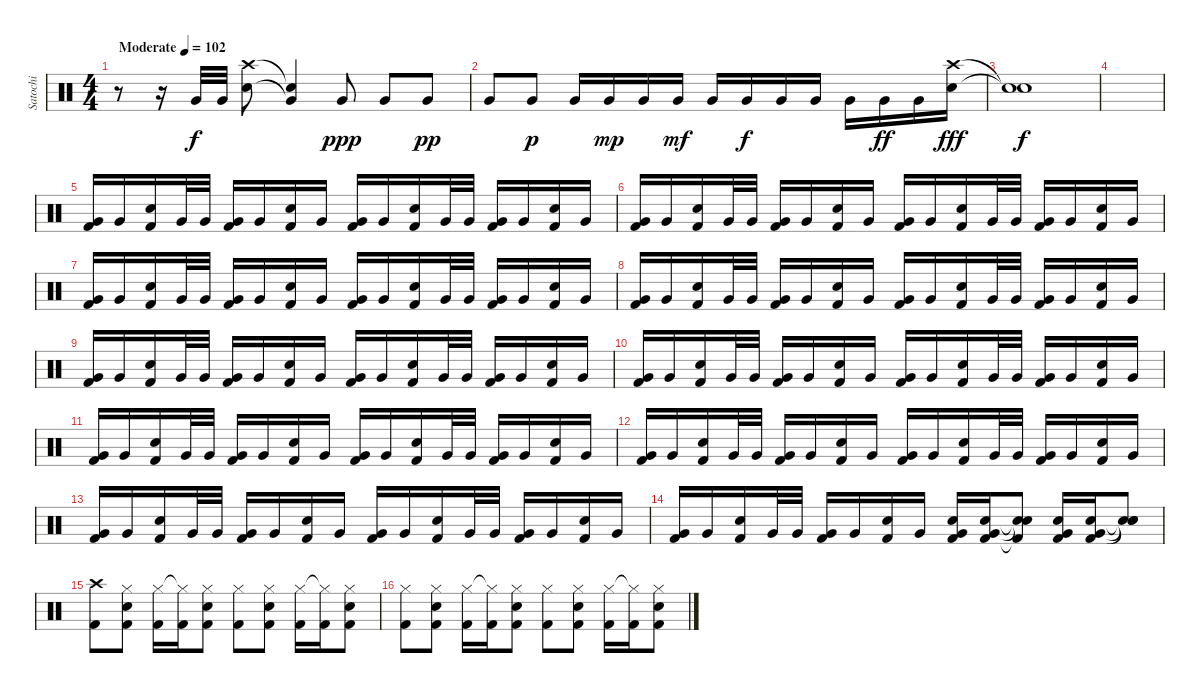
\track ("Satochi" "Satochi") {instrument percussion}
\staff {score}
\articulation defaults
\ts (4 4)
\tempo (102 "Moderate")
\clef neutral
\ks c
r.8{dy f} r.16 "Very Low Tom (hit)".32 "Very Low Tom (hit)".32 ("Crash high (hit)" "Electric Snare (hit)").8 ("Snare (hit)"{t} "Very Low Tom (hit)"{t}).4 "Very Low Tom (hit)".8{dy ppp} "Very Low Tom (hit)".8 "Very Low Tom (hit)".8{dy pp} |
"Very Low Tom (hit)".8 "Very Low Tom (hit)".8{dy p} "Very Low Tom (hit)".16 "Very Low Tom (hit)".16{dy mp} "Very Low Tom (hit)".16 "Very Low Tom (hit)".16{dy mf} "Very Low Tom (hit)".16 "Very Low Tom (hit)".16{dy f} "Very Low Tom (hit)".16 "Very Low Tom (hit)".16 "Very Low Tom (hit)".16 "Very Low Tom (hit)".16{dy ff} "Very Low Tom (hit)".16 ("Crash high (hit)" "Electric Snare (hit)").16{dy fff} |
("Snare (hit)"{t} "Snare (hit)"{t}).1{dy f} |
|
("Very Low Tom (hit)" "Kick (hit) 2").16 "Very Low Tom (hit)".16 ("Electric Snare (hit)" "Kick (hit) 2").16 "Very Low Tom (hit)".32 "Very Low Tom (hit)".32 ("Very Low Tom (hit)" "Kick (hit) 2").16 "Very Low Tom (hit)".16 ("Electric Snare (hit)" "Kick (hit) 2").16 "Very Low Tom (hit)".16 ("Very Low Tom (hit)" "Kick (hit) 2").16 "Very Low Tom (hit)".16 ("Electric Snare (hit)" "Kick (hit) 2").16 "Very Low Tom (hit)".32 "Very Low Tom (hit)".32 ("Very Low Tom (hit)" "Kick (hit) 2").16 "Very Low Tom (hit)".16 ("Electric Snare (hit)" "Kick (hit) 2").16 "Very Low Tom (hit)".16 |
("Very Low Tom (hit)" "Kick (hit) 2").16 "Very Low Tom (hit)".16 ("Electric Snare (hit)" "Kick (hit) 2").16 "Very Low Tom (hit)".32 "Very Low Tom (hit)".32 ("Very Low Tom (hit)" "Kick (hit) 2").16 "Very Low Tom (hit)".16 ("Electric Snare (hit)" "Kick (hit) 2").16 "Very Low Tom (hit)".16 ("Very Low Tom (hit)" "Kick (hit) 2").16 "Very Low Tom (hit)".16 ("Electric Snare (hit)" "Kick (hit) 2").16 "Very Low Tom (hit)".32 "Very Low Tom (hit)".32 ("Very Low Tom (hit)" "Kick (hit) 2").16 "Very Low Tom (hit)".16 ("Electric Snare (hit)" "Kick (hit) 2").16 "Very Low Tom (hit)".16 |
("Very Low Tom (hit)" "Kick (hit) 2").16 "Very Low Tom (hit)".16 ("Electric Snare (hit)" "Kick (hit) 2").16 "Very Low Tom (hit)".32 "Very Low Tom (hit)".32 ("Very Low Tom (hit)" "Kick (hit) 2").16 "Very Low Tom (hit)".16 ("Electric Snare (hit)" "Kick (hit) 2").16 "Very Low Tom (hit)".16 ("Very Low Tom (hit)" "Kick (hit) 2").16 "Very Low Tom (hit)".16 ("Electric Snare (hit)" "Kick (hit) 2").16 "Very Low Tom (hit)".32 "Very Low Tom (hit)".32 ("Very Low Tom (hit)" "Kick (hit) 2").16 "Very Low Tom (hit)".16 ("Electric Snare (hit)" "Kick (hit) 2").16 "Very Low Tom (hit)".16 |
("Very Low Tom (hit)" "Kick (hit) 2").16 "Very Low Tom (hit)".16 ("Electric Snare (hit)" "Kick (hit) 2").16 "Very Low Tom (hit)".32 "Very Low Tom (hit)".32 ("Very Low Tom (hit)" "Kick (hit) 2").16 "Very Low Tom (hit)".16 ("Electric Snare (hit)" "Kick (hit) 2").16 "Very Low Tom (hit)".16 ("Very Low Tom (hit)" "Kick (hit) 2").16 "Very Low Tom (hit)".16 ("Electric Snare (hit)" "Kick (hit) 2").16 "Very Low Tom (hit)".32 "Very Low Tom (hit)".32 ("Very Low Tom (hit)" "Kick (hit) 2").16 "Very Low Tom (hit)".16 ("Electric Snare (hit)" "Kick (hit) 2").16 "Very Low Tom (hit)".16 |
("Very Low Tom (hit)" "Kick (hit) 2").16 "Very Low Tom (hit)".16 ("Electric Snare (hit)" "Kick (hit) 2").16 "Very Low Tom (hit)".32 "Very Low Tom (hit)".32 ("Very Low Tom (hit)" "Kick (hit) 2").16 "Very Low Tom (hit)".16 ("Electric Snare (hit)" "Kick (hit) 2").16 "Very Low Tom (hit)".16 ("Very Low Tom (hit)" "Kick (hit) 2").16 "Very Low Tom (hit)".16 ("Electric Snare (hit)" "Kick (hit) 2").16 "Very Low Tom (hit)".32 "Very Low Tom (hit)".32 ("Very Low Tom (hit)" "Kick (hit) 2").16 "Very Low Tom (hit)".16 ("Electric Snare (hit)" "Kick (hit) 2").16 "Very Low Tom (hit)".16 |
("Very Low Tom (hit)" "Kick (hit) 2").16 "Very Low Tom (hit)".16 ("Electric Snare (hit)" "Kick (hit) 2").16 "Very Low Tom (hit)".32 "Very Low Tom (hit)".32 ("Very Low Tom (hit)" "Kick (hit) 2").16 "Very Low Tom (hit)".16 ("Electric Snare (hit)" "Kick (hit) 2").16 "Very Low Tom (hit)".16 ("Very Low Tom (hit)" "Kick (hit) 2").16 "Very Low Tom (hit)".16 ("Electric Snare (hit)" "Kick (hit) 2").16 "Very Low Tom (hit)".32 "Very Low Tom (hit)".32 ("Very Low Tom (hit)" "Kick (hit) 2").16 "Very Low Tom (hit)".16 ("Electric Snare (hit)" "Kick (hit) 2").16 "Very Low Tom (hit)".16 |
("Very Low Tom (hit)" "Kick (hit) 2").16 "Very Low Tom (hit)".16 ("Electric Snare (hit)" "Kick (hit) 2").16 "Very Low Tom (hit)".32 "Very Low Tom (hit)".32 ("Very Low Tom (hit)" "Kick (hit) 2").16 "Very Low Tom (hit)".16 ("Electric Snare (hit)" "Kick (hit) 2").16 "Very Low Tom (hit)".16 ("Very Low Tom (hit)" "Kick (hit) 2").16 "Very Low Tom (hit)".16 ("Electric Snare (hit)" "Kick (hit) 2").16 "Very Low Tom (hit)".32 "Very Low Tom (hit)".32 ("Very Low Tom (hit)" "Kick (hit) 2").16 "Very Low Tom (hit)".16 ("Electric Snare (hit)" "Kick (hit) 2").16 "Very Low Tom (hit)".16 |
("Very Low Tom (hit)" "Kick (hit) 2").16 "Very Low Tom (hit)".16 ("Electric Snare (hit)" "Kick (hit) 2").16 "Very Low Tom (hit)".32 "Very Low Tom (hit)".32 ("Very Low Tom (hit)" "Kick (hit) 2").16 "Very Low Tom (hit)".16 ("Electric Snare (hit)" "Kick (hit) 2").16 "Very Low Tom (hit)".16 ("Very Low Tom (hit)" "Kick (hit) 2").16 "Very Low Tom (hit)".16 ("Electric Snare (hit)" "Kick (hit) 2").16 "Very Low Tom (hit)".32 "Very Low Tom (hit)".32 ("Very Low Tom (hit)" "Kick (hit) 2").16 "Very Low Tom (hit)".16 ("Electric Snare (hit)" "Kick (hit) 2").16 "Very Low Tom (hit)".16 |
("Very Low Tom (hit)" "Kick (hit) 2").16 "Very Low Tom (hit)".16 ("Electric Snare (hit)" "Kick (hit) 2").16 "Very Low Tom (hit)".32 "Very Low Tom (hit)".32 ("Very Low Tom (hit)" "Kick (hit) 2").16 "Very Low Tom (hit)".16 ("Electric Snare (hit)" "Kick (hit) 2").16 "Very Low Tom (hit)".16 ("Very Low Tom (hit)" "Kick (hit) 2").16 "Very Low Tom (hit)".16 ("Electric Snare (hit)" "Kick (hit) 2").16 "Very Low Tom (hit)".32 "Very Low Tom (hit)".32 ("Very Low Tom (hit)" "Kick (hit) 2").16 "Very Low Tom (hit)".16 ("Electric Snare (hit)" "Kick (hit) 2").16 "Very Low Tom (hit)".16 |
("Very Low Tom (hit)" "Kick (hit) 2").16 "Very Low Tom (hit)".16 ("Electric Snare (hit)" "Kick (hit) 2").16 "Very Low Tom (hit)".32 "Very Low Tom (hit)".32 ("Very Low Tom (hit)" "Kick (hit) 2").16 "Very Low Tom (hit)".16 ("Electric Snare (hit)" "Kick (hit) 2").16 "Very Low Tom (hit)".16 ("Electric Snare (hit)" "Very Low Tom (hit)" "Kick (hit) 2").16 ("Electric Snare (hit)" "Very Low Tom (hit)" "Kick (hit) 2").16 ("Snare (hit)"{t} "Electric Snare (hit)"{t} "Kick (hit) 2"{t}).8 ("Electric Snare (hit)" "Very Low Tom (hit)" "Kick (hit) 2").16 ("Electric Snare (hit)" "Very Low Tom (hit)" "Kick (hit) 2").16 ("Snare (hit)"{t} "Snare (hit)"{t} "Snare (hit)"{t}).8 |
("Crash high (hit)" "Kick (hit) 2").8 ("Hi-Hat (closed)" "Electric Snare (hit)" "Kick (hit) 2").8 ("Hi-Hat (closed)" "Kick (hit) 2").16 ("Hi-Hat (closed)"{t} "Kick (hit) 2").16 ("Hi-Hat (closed)" "Electric Snare (hit)" "Kick (hit) 2").8 ("Hi-Hat (closed)" "Kick (hit) 2").8 ("Hi-Hat (closed)" "Electric Snare (hit)" "Kick (hit) 2").8 ("Hi-Hat (closed)" "Kick (hit) 2").16 ("Hi-Hat (closed)"{t} "Kick (hit) 2").16 ("Hi-Hat (closed)" "Electric Snare (hit)" "Kick (hit) 2").8 |
("Hi-Hat (closed)" "Kick (hit) 2").8 ("Hi-Hat (closed)" "Electric Snare (hit)" "Kick (hit) 2").8 ("Hi-Hat (closed)" "Kick (hit) 2").16 ("Hi-Hat (closed)"{t} "Kick (hit) 2").16 ("Hi-Hat (closed)" "Electric Snare (hit)" "Kick (hit) 2").8 ("Hi-Hat (closed)" "Kick (hit) 2").8 ("Hi-Hat (closed)" "Electric Snare (hit)" "Kick (hit) 2").8 ("Hi-Hat (closed)" "Kick (hit) 2").16 ("Hi-Hat (closed)"{t} "Kick (hit) 2").16 ("Hi-Hat (closed)" "Electric Snare (hit)" "Kick (hit) 2").8
